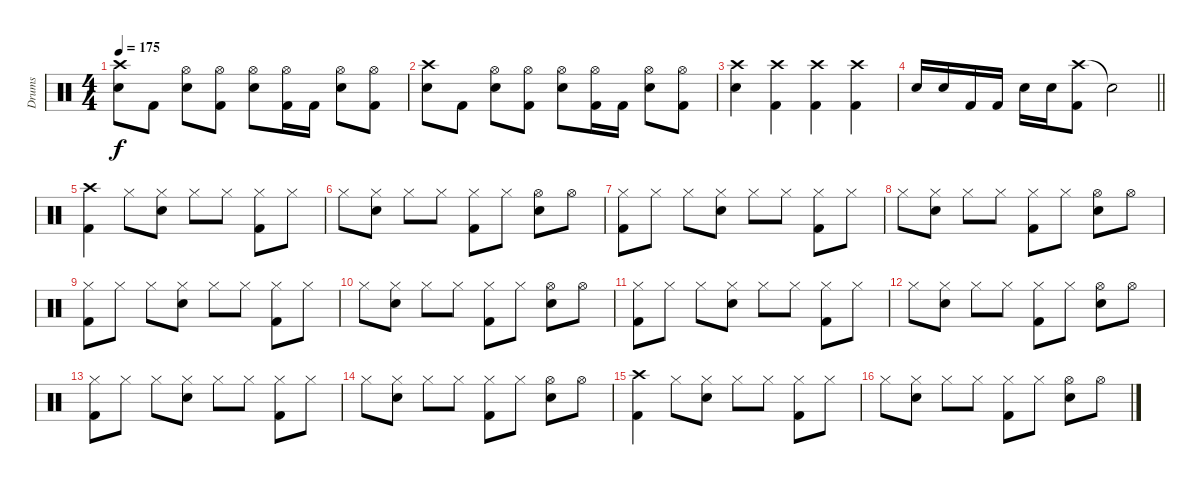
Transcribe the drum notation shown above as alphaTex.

\track ("Drums" "Drums") {instrument percussion}
\staff {score}
\articulation defaults
\ts (4 4)
\tempo 175
\clef neutral
\ks c
("Crash high (hit)" "Snare (hit) 2").8{dy f} "Kick (hit) 2".8 ("Hi-Hat (open)" "Snare (hit) 2").8 ("Hi-Hat (open)" "Kick (hit) 2").8 ("Hi-Hat (open)" "Snare (hit) 2").8 ("Hi-Hat (open)" "Kick (hit) 2").16 "Kick (hit) 2".16 ("Hi-Hat (open)" "Snare (hit) 2").8 ("Hi-Hat (open)" "Kick (hit) 2").8 |
("Crash high (hit)" "Snare (hit) 2").8 "Kick (hit) 2".8 ("Hi-Hat (open)" "Snare (hit) 2").8 ("Hi-Hat (open)" "Kick (hit) 2").8 ("Hi-Hat (open)" "Snare (hit) 2").8 ("Hi-Hat (open)" "Kick (hit) 2").16 "Kick (hit) 2".16 ("Hi-Hat (open)" "Snare (hit) 2").8 ("Hi-Hat (open)" "Kick (hit) 2").8 |
("Crash high (hit)" "Snare (hit) 2").4 ("Crash high (hit)" "Kick (hit) 2").4 ("Crash high (hit)" "Kick (hit) 2").4 ("Crash high (hit)" "Kick (hit) 2").4 |
\barLineRight lightlight "Snare (hit) 2".16 "Snare (hit) 2".16 "Kick (hit) 2".16 "Kick (hit) 2".16 "Snare (hit) 2".16 "Snare (hit) 2".16
("Crash high (hit)" "Kick (hit) 2").8 "Snare (hit)"{t}.2 |
("Crash high (hit)" "Kick (hit) 2").4 "Hi-Hat (closed)".8 ("Hi-Hat (closed)" "Snare (hit) 2").8 "Hi-Hat (closed)".8 "Hi-Hat (closed)".8 ("Hi-Hat (closed)" "Kick (hit) 2").8 "Hi-Hat (closed)".8 |
"Hi-Hat (closed)".8 ("Hi-Hat (closed)" "Snare (hit) 2").8 "Hi-Hat (closed)".8 "Hi-Hat (closed)".8 ("Hi-Hat (closed)" "Kick (hit) 2").8 "Hi-Hat (closed)".8 ("Hi-Hat (open)" "Snare (hit) 2").8 "Hi-Hat (open)".8 |
("Hi-Hat (closed)" "Kick (hit) 2").8 "Hi-Hat (closed)".8 "Hi-Hat (closed)".8 ("Hi-Hat (closed)" "Snare (hit) 2").8 "Hi-Hat (closed)".8 "Hi-Hat (closed)".8 ("Hi-Hat (closed)" "Kick (hit) 2").8 "Hi-Hat (closed)".8 |
"Hi-Hat (closed)".8 ("Hi-Hat (closed)" "Snare (hit) 2").8 "Hi-Hat (closed)".8 "Hi-Hat (closed)".8 ("Hi-Hat (closed)" "Kick (hit) 2").8 "Hi-Hat (closed)".8 ("Hi-Hat (open)" "Snare (hit) 2").8 "Hi-Hat (open)".8 |
("Hi-Hat (closed)" "Kick (hit) 2").8 "Hi-Hat (closed)".8 "Hi-Hat (closed)".8 ("Hi-Hat (closed)" "Snare (hit) 2").8 "Hi-Hat (closed)".8 "Hi-Hat (closed)".8 ("Hi-Hat (closed)" "Kick (hit) 2").8 "Hi-Hat (closed)".8 |
"Hi-Hat (closed)".8 ("Hi-Hat (closed)" "Snare (hit) 2").8 "Hi-Hat (closed)".8 "Hi-Hat (closed)".8 ("Hi-Hat (closed)" "Kick (hit) 2").8 "Hi-Hat (closed)".8 ("Hi-Hat (open)" "Snare (hit) 2").8 "Hi-Hat (open)".8 |
("Hi-Hat (closed)" "Kick (hit) 2").8 "Hi-Hat (closed)".8 "Hi-Hat (closed)".8 ("Hi-Hat (closed)" "Snare (hit) 2").8 "Hi-Hat (closed)".8 "Hi-Hat (closed)".8 ("Hi-Hat (closed)" "Kick (hit) 2").8 "Hi-Hat (closed)".8 |
"Hi-Hat (closed)".8 ("Hi-Hat (closed)" "Snare (hit) 2").8 "Hi-Hat (closed)".8 "Hi-Hat (closed)".8 ("Hi-Hat (closed)" "Kick (hit) 2").8 "Hi-Hat (closed)".8 ("Hi-Hat (open)" "Snare (hit) 2").8 "Hi-Hat (open)".8 |
("Hi-Hat (closed)" "Kick (hit) 2").8 "Hi-Hat (closed)".8 "Hi-Hat (closed)".8 ("Hi-Hat (closed)" "Snare (hit) 2").8 "Hi-Hat (closed)".8 "Hi-Hat (closed)".8 ("Hi-Hat (closed)" "Kick (hit) 2").8 "Hi-Hat (closed)".8 |
"Hi-Hat (closed)".8 ("Hi-Hat (closed)" "Snare (hit) 2").8 "Hi-Hat (closed)".8 "Hi-Hat (closed)".8 ("Hi-Hat (closed)" "Kick (hit) 2").8 "Hi-Hat (closed)".8 ("Hi-Hat (open)" "Snare (hit) 2").8 "Hi-Hat (open)".8 |
("Crash high (hit)" "Kick (hit) 2").4 "Hi-Hat (closed)".8 ("Hi-Hat (closed)" "Snare (hit) 2").8 "Hi-Hat (closed)".8 "Hi-Hat (closed)".8 ("Hi-Hat (closed)" "Kick (hit) 2").8 "Hi-Hat (closed)".8 |
"Hi-Hat (closed)".8 ("Hi-Hat (closed)" "Snare (hit) 2").8 "Hi-Hat (closed)".8 "Hi-Hat (closed)".8 ("Hi-Hat (closed)" "Kick (hit) 2").8 "Hi-Hat (closed)".8 ("Hi-Hat (open)" "Snare (hit) 2").8 "Hi-Hat (open)".8
